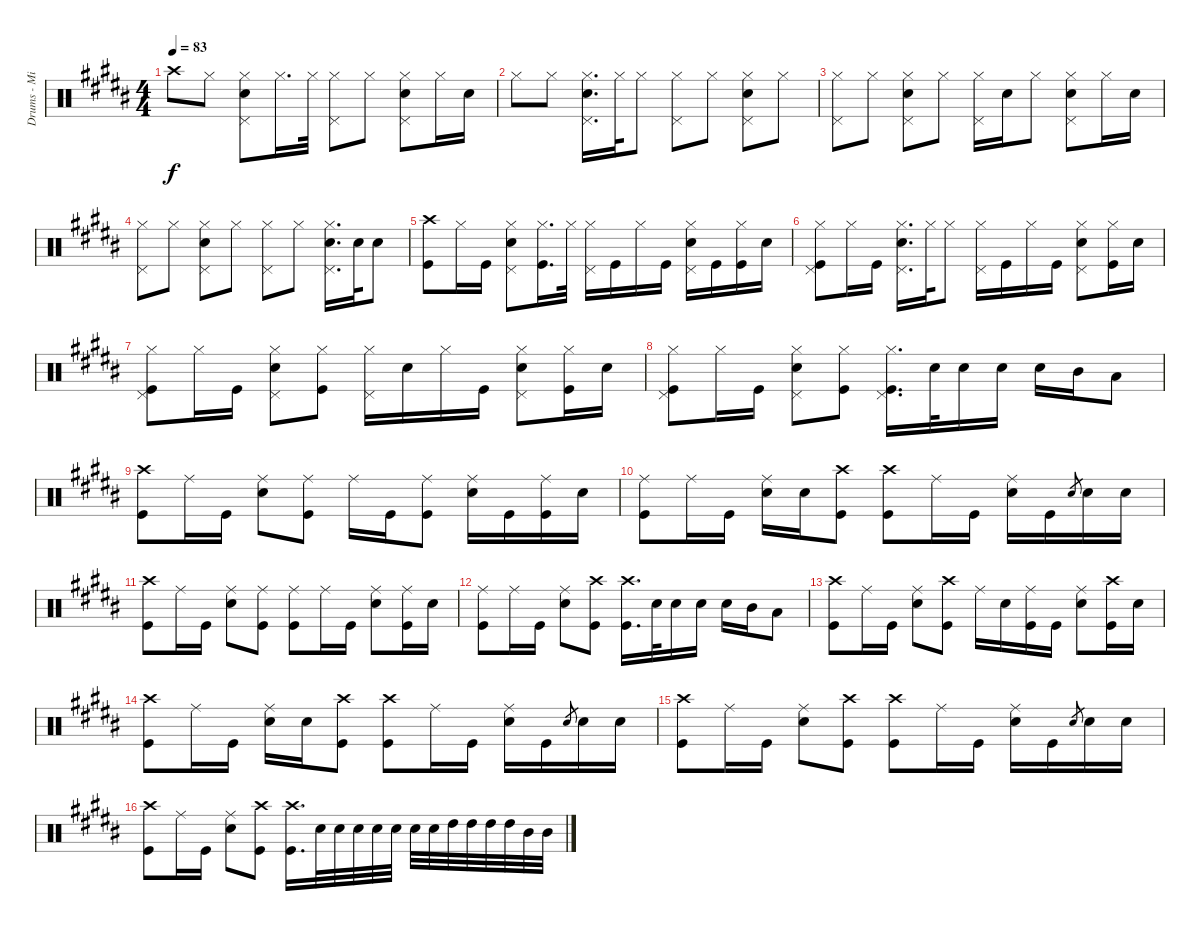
\track ("Drums - Mike Portnoy" "Drums - Mi") {instrument percussion}
\staff {score}
\articulation defaults
\ts (4 4)
\tempo 83
\clef neutral
\ks b "Crash high (hit)".8{dy f} "Hi-Hat (closed)".8
("Hi-Hat (closed)" "Snare (hit) 2" "Pedal Hi-Hat (hit)").8 "Hi-Hat (closed)".16{d} "Hi-Hat (closed)".32 ("Hi-Hat (closed)" "Pedal Hi-Hat (hit)").8 "Hi-Hat (closed)".8 ("Hi-Hat (closed)" "Snare (hit) 2" "Pedal Hi-Hat (hit)").8 "Hi-Hat (closed)".16 "Snare (hit) 2".16 |
"Hi-Hat (closed)".8 "Hi-Hat (closed)".8 ("Hi-Hat (closed)" "Snare (hit) 2" "Pedal Hi-Hat (hit)").16{d} "Hi-Hat (closed)".32 "Hi-Hat (closed)".8 ("Hi-Hat (closed)" "Pedal Hi-Hat (hit)").8 "Hi-Hat (closed)".8 ("Hi-Hat (closed)" "Snare (hit) 2" "Pedal Hi-Hat (hit)").8 "Hi-Hat (closed)".8 |
("Hi-Hat (closed)" "Pedal Hi-Hat (hit)").8 "Hi-Hat (closed)".8 ("Hi-Hat (closed)" "Snare (hit) 2" "Pedal Hi-Hat (hit)").8 "Hi-Hat (closed)".8 ("Hi-Hat (closed)" "Pedal Hi-Hat (hit)").16 "Snare (hit) 2".16 "Hi-Hat (closed)".8 ("Hi-Hat (closed)" "Snare (hit) 2" "Pedal Hi-Hat (hit)").8 "Hi-Hat (closed)".16 "Snare (hit) 2".16 |
("Hi-Hat (closed)" "Pedal Hi-Hat (hit)").8 "Hi-Hat (closed)".8 ("Hi-Hat (closed)" "Snare (hit) 2" "Pedal Hi-Hat (hit)").8 "Hi-Hat (closed)".8 ("Hi-Hat (closed)" "Pedal Hi-Hat (hit)").8 "Hi-Hat (closed)".8 ("Hi-Hat (closed)" "Snare (hit) 2" "Pedal Hi-Hat (hit)").16{d} "Snare (hit) 2".32 "Snare (hit) 2".8 |
("Crash high (hit)" "Kick (hit)").8 "Hi-Hat (closed)".16 "Kick (hit)".16 ("Hi-Hat (closed)" "Snare (hit) 2" "Pedal Hi-Hat (hit)").8 ("Hi-Hat (closed)" "Kick (hit)").16{d} "Hi-Hat (closed)".32 ("Hi-Hat (closed)" "Pedal Hi-Hat (hit)").16 "Kick (hit)".16 "Hi-Hat (closed)".16 "Kick (hit)".16 ("Hi-Hat (closed)" "Snare (hit) 2" "Pedal Hi-Hat (hit)").16 "Kick (hit)".16 ("Hi-Hat (closed)" "Kick (hit)").16 "Snare (hit) 2".16 |
("Hi-Hat (closed)" "Kick (hit)" "Pedal Hi-Hat (hit)").8 "Hi-Hat (closed)".16 "Kick (hit)".16 ("Hi-Hat (closed)" "Snare (hit) 2" "Pedal Hi-Hat (hit)").16{d} "Hi-Hat (closed)".32 "Hi-Hat (closed)".8 ("Hi-Hat (closed)" "Pedal Hi-Hat (hit)").16 "Kick (hit)".16 "Hi-Hat (closed)".16 "Kick (hit)".16 ("Hi-Hat (closed)" "Snare (hit) 2" "Pedal Hi-Hat (hit)").8 ("Hi-Hat (closed)" "Kick (hit)").16 "Snare (hit) 2".16 |
("Hi-Hat (closed)" "Kick (hit)" "Pedal Hi-Hat (hit)").8 "Hi-Hat (closed)".16 "Kick (hit)".16 ("Hi-Hat (closed)" "Snare (hit) 2" "Pedal Hi-Hat (hit)").8 ("Hi-Hat (closed)" "Kick (hit)").8 ("Hi-Hat (closed)" "Pedal Hi-Hat (hit)").16 "Snare (hit) 2".16 "Hi-Hat (closed)".16 "Kick (hit)".16 ("Hi-Hat (closed)" "Snare (hit) 2" "Pedal Hi-Hat (hit)").8 ("Hi-Hat (closed)" "Kick (hit)").16 "Snare (hit) 2".16 |
("Hi-Hat (closed)" "Kick (hit)" "Pedal Hi-Hat (hit)").8 "Hi-Hat (closed)".16 "Kick (hit)".16 ("Hi-Hat (closed)" "Snare (hit) 2" "Pedal Hi-Hat (hit)").8 ("Hi-Hat (closed)" "Kick (hit)").8 ("Hi-Hat (closed)" "Kick (hit)" "Pedal Hi-Hat (hit)").16{d} "Snare (hit) 2".32 "Snare (hit) 2".16 "Snare (hit) 2".16 "Snare (hit) 2".16 "Mid Tom (hit)".16 "Low Tom (hit)".8 |
("Crash high (hit)" "Kick (hit)").8 "Ride (middle)".16 "Kick (hit)".16 ("Ride (middle)" "Snare (hit) 2").8 ("Ride (middle)" "Kick (hit)").8 "Ride (middle)".16 "Kick (hit)".16 ("Ride (middle)" "Kick (hit)").8 ("Ride (middle)" "Snare (hit) 2").16 "Kick (hit)".16 ("Ride (middle)" "Kick (hit)").16 "Snare (hit) 2".16 |
("Ride (middle)" "Kick (hit)").8 "Ride (middle)".16 "Kick (hit)".16 ("Ride (middle)" "Snare (hit) 2").16 "Snare (hit) 2".16 ("Crash high (hit)" "Kick (hit)").8 ("Crash high (hit)" "Kick (hit)").8 "Ride (middle)".16 "Kick (hit)".16 ("Ride (middle)" "Snare (hit) 2").16 "Kick (hit)".16 "Snare (hit) 2".8{gr} "Snare (hit) 2".16 "Snare (hit) 2".16 |
("Crash high (hit)" "Kick (hit)").8 "Ride (middle)".16 "Kick (hit)".16 ("Ride (middle)" "Snare (hit) 2").8 ("Ride (middle)" "Kick (hit)").8 ("Ride (middle)" "Kick (hit)").8 "Ride (middle)".16 "Kick (hit)".16 ("Ride (middle)" "Snare (hit) 2").8 ("Ride (middle)" "Kick (hit)").16 "Snare (hit) 2".16 |
("Ride (middle)" "Kick (hit)").8 "Ride (middle)".16 "Kick (hit)".16 ("Ride (middle)" "Snare (hit) 2").8 ("Crash high (hit)" "Kick (hit)").8 ("Crash high (hit)" "Kick (hit)").16{d} "Snare (hit) 2".32 "Snare (hit) 2".16 "Snare (hit) 2".16 "Snare (hit) 2".16 "Mid Tom (hit)".16 "Low Tom (hit)".8 |
("Crash high (hit)" "Kick (hit)").8 "Ride (middle)".16 "Kick (hit)".16 ("Ride (middle)" "Snare (hit) 2").8 ("Crash high (hit)" "Kick (hit)").8 "Ride (middle)".16 "Snare (hit) 2".16 ("Ride (middle)" "Kick (hit)").16 "Kick (hit)".16 ("Ride (middle)" "Snare (hit) 2").8 ("Crash high (hit)" "Kick (hit)").16 "Snare (hit) 2".16 |
("Crash high (hit)" "Kick (hit)").8 "Ride (middle)".16 "Kick (hit)".16 ("Ride (middle)" "Snare (hit) 2").16 "Snare (hit) 2".16 ("Crash high (hit)" "Kick (hit)").8 ("Crash high (hit)" "Kick (hit)").8 "Ride (middle)".16 "Kick (hit)".16 ("Ride (middle)" "Snare (hit) 2").16 "Kick (hit)".16 "Snare (hit) 2".8{gr} "Snare (hit) 2".16 "Snare (hit) 2".16 |
("Crash high (hit)" "Kick (hit)").8 "Ride (middle)".16 "Kick (hit)".16 ("Ride (middle)" "Snare (hit) 2").8 ("Crash high (hit)" "Kick (hit)").8 ("Crash high (hit)" "Kick (hit)").8 "Ride (middle)".16 "Kick (hit)".16 ("Ride (middle)" "Snare (hit) 2").16 "Kick (hit)".16 "Snare (hit) 2".8{gr} "Snare (hit) 2".16 "Snare (hit) 2".16 |
("Crash high (hit)" "Kick (hit)").8 "Ride (middle)".16 "Kick (hit)".16 ("Ride (middle)" "Snare (hit) 2").8 ("Crash high (hit)" "Kick (hit)").8 ("Crash high (hit)" "Kick (hit)").16{d} "Snare (hit) 2".32 "Snare (hit) 2".32 "Snare (hit) 2".32 "Snare (hit) 2".32 "Snare (hit) 2".32 "Snare (hit) 2".32 "Snare (hit) 2".32 "High Tom (hit)".32 "High Tom (hit)".32 "High Tom (hit)".32 "High Tom (hit)".32 "Mid Tom (hit)".32 "Mid Tom (hit)".32
